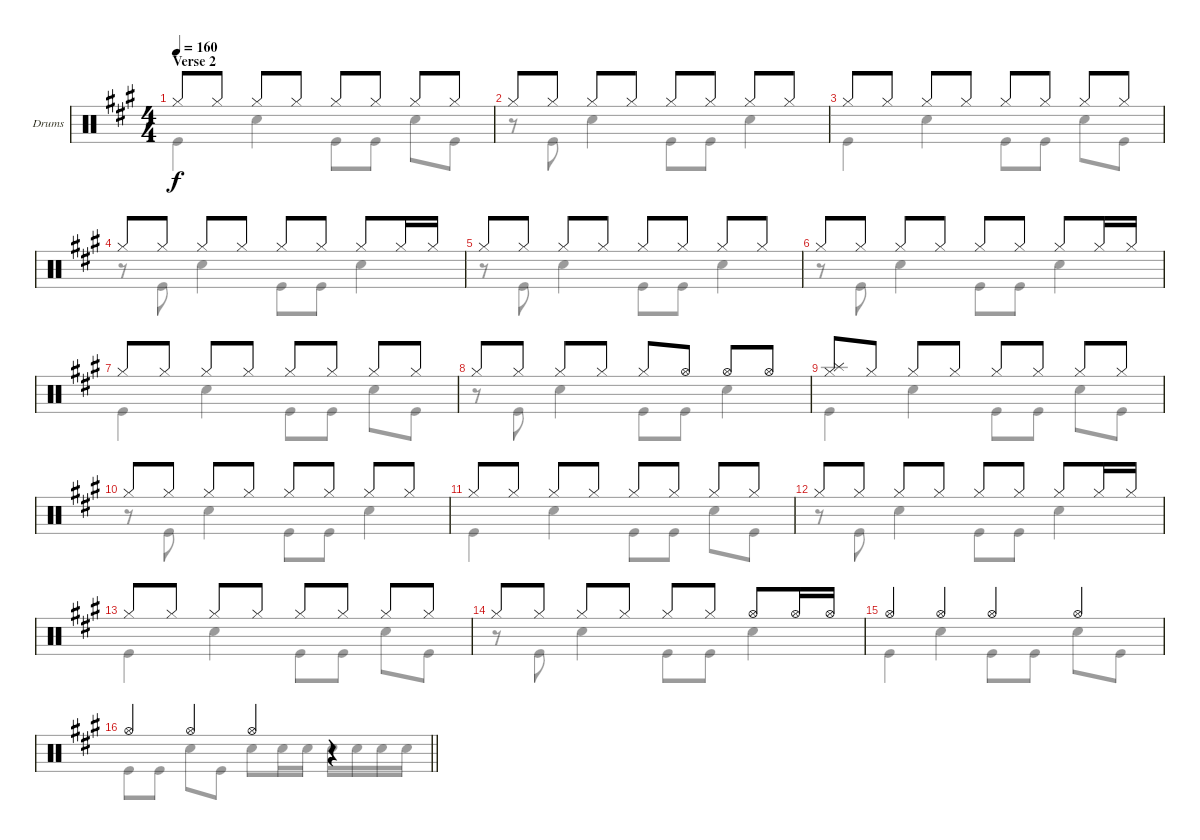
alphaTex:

\bracketExtendMode groupsimilarinstruments
\firstSystemTrackNameOrientation horizontal
\otherSystemsTrackNameOrientation horizontal
\track ("Drumkit" "Drums") {instrument percussion}
\staff {score}
\articulation defaults
\voice
\ts (4 4)
\section ("" "Verse 2")
\tempo 160
\clef neutral
\ks a "Hi-Hat (closed)".8{dy f} "Hi-Hat (closed)".8 "Hi-Hat (closed)".8 "Hi-Hat (closed)".8 "Hi-Hat (closed)".8 "Hi-Hat (closed)".8 "Hi-Hat (closed)".8 "Hi-Hat (closed)".8
|
"Hi-Hat (closed)".8 "Hi-Hat (closed)".8 "Hi-Hat (closed)".8 "Hi-Hat (closed)".8 "Hi-Hat (closed)".8 "Hi-Hat (closed)".8 "Hi-Hat (closed)".8 "Hi-Hat (closed)".8 |
"Hi-Hat (closed)".8 "Hi-Hat (closed)".8 "Hi-Hat (closed)".8 "Hi-Hat (closed)".8 "Hi-Hat (closed)".8 "Hi-Hat (closed)".8 "Hi-Hat (closed)".8 "Hi-Hat (closed)".8 |
"Hi-Hat (closed)".8 "Hi-Hat (closed)".8 "Hi-Hat (closed)".8 "Hi-Hat (closed)".8 "Hi-Hat (closed)".8 "Hi-Hat (closed)".8 "Hi-Hat (closed)".8 "Hi-Hat (closed)".16 "Hi-Hat (closed)".16 |
"Hi-Hat (closed)".8 "Hi-Hat (closed)".8 "Hi-Hat (closed)".8 "Hi-Hat (closed)".8 "Hi-Hat (closed)".8 "Hi-Hat (closed)".8 "Hi-Hat (closed)".8 "Hi-Hat (closed)".8 |
"Hi-Hat (closed)".8 "Hi-Hat (closed)".8 "Hi-Hat (closed)".8 "Hi-Hat (closed)".8 "Hi-Hat (closed)".8 "Hi-Hat (closed)".8 "Hi-Hat (closed)".8 "Hi-Hat (closed)".16 "Hi-Hat (closed)".16 |
"Hi-Hat (closed)".8 "Hi-Hat (closed)".8 "Hi-Hat (closed)".8 "Hi-Hat (closed)".8 "Hi-Hat (closed)".8 "Hi-Hat (closed)".8 "Hi-Hat (closed)".8 "Hi-Hat (closed)".8 |
"Hi-Hat (closed)".8 "Hi-Hat (closed)".8 "Hi-Hat (closed)".8 "Hi-Hat (closed)".8 "Hi-Hat (closed)".8 "Hi-Hat (open)".8 "Hi-Hat (open)".8 "Hi-Hat (open)".8 |
("Splash (hit)" "Hi-Hat (closed)").8 "Hi-Hat (closed)".8 "Hi-Hat (closed)".8 "Hi-Hat (closed)".8 "Hi-Hat (closed)".8 "Hi-Hat (closed)".8 "Hi-Hat (closed)".8 "Hi-Hat (closed)".8 |
"Hi-Hat (closed)".8 "Hi-Hat (closed)".8 "Hi-Hat (closed)".8 "Hi-Hat (closed)".8 "Hi-Hat (closed)".8 "Hi-Hat (closed)".8 "Hi-Hat (closed)".8 "Hi-Hat (closed)".8 |
"Hi-Hat (closed)".8 "Hi-Hat (closed)".8 "Hi-Hat (closed)".8 "Hi-Hat (closed)".8 "Hi-Hat (closed)".8 "Hi-Hat (closed)".8 "Hi-Hat (closed)".8 "Hi-Hat (closed)".8 |
"Hi-Hat (closed)".8 "Hi-Hat (closed)".8 "Hi-Hat (closed)".8 "Hi-Hat (closed)".8 "Hi-Hat (closed)".8 "Hi-Hat (closed)".8 "Hi-Hat (closed)".8 "Hi-Hat (closed)".16 "Hi-Hat (closed)".16 |
"Hi-Hat (closed)".8 "Hi-Hat (closed)".8 "Hi-Hat (closed)".8 "Hi-Hat (closed)".8 "Hi-Hat (closed)".8 "Hi-Hat (closed)".8 "Hi-Hat (closed)".8 "Hi-Hat (closed)".8 |
"Hi-Hat (closed)".8 "Hi-Hat (closed)".8 "Hi-Hat (closed)".8 "Hi-Hat (closed)".8 "Hi-Hat (closed)".8 "Hi-Hat (closed)".8 "Hi-Hat (open)".8 "Hi-Hat (open)".16 "Hi-Hat (open)".16 |
"Hi-Hat (open)".4 "Hi-Hat (open)".4 "Hi-Hat (open)".4 "Hi-Hat (open)".4 |
\barLineRight lightlight "Hi-Hat (open)".4 "Hi-Hat (open)".4 "Hi-Hat (open)".4
r.4
\voice
\clef neutral
\ottava regular
\simile none
\ks a "Kick (hit)".4{dy f} "Snare (hit) 2".4 "Kick (hit)".8 "Kick (hit)".8 "Snare (hit) 2".8 "Kick (hit)".8
|
r.8 "Kick (hit)".8 "Snare (hit) 2".4 "Kick (hit)".8 "Kick (hit)".8 "Snare (hit) 2".4 |
"Kick (hit)".4 "Snare (hit) 2".4 "Kick (hit)".8 "Kick (hit)".8 "Snare (hit) 2".8 "Kick (hit)".8 |
r.8 "Kick (hit)".8 "Snare (hit) 2".4 "Kick (hit)".8 "Kick (hit)".8 "Snare (hit) 2".4 |
r.8 "Kick (hit)".8 "Snare (hit) 2".4 "Kick (hit)".8 "Kick (hit)".8 "Snare (hit) 2".4 |
r.8 "Kick (hit)".8 "Snare (hit) 2".4 "Kick (hit)".8 "Kick (hit)".8 "Snare (hit) 2".4 |
"Kick (hit)".4 "Snare (hit) 2".4 "Kick (hit)".8 "Kick (hit)".8 "Snare (hit) 2".8 "Kick (hit)".8 |
r.8 "Kick (hit)".8 "Snare (hit) 2".4 "Kick (hit)".8 "Kick (hit)".8 "Snare (hit) 2".4 |
"Kick (hit)".4 "Snare (hit) 2".4 "Kick (hit)".8 "Kick (hit)".8 "Snare (hit) 2".8 "Kick (hit)".8 |
r.8 "Kick (hit)".8 "Snare (hit) 2".4 "Kick (hit)".8 "Kick (hit)".8 "Snare (hit) 2".4 |
"Kick (hit)".4 "Snare (hit) 2".4 "Kick (hit)".8 "Kick (hit)".8 "Snare (hit) 2".8 "Kick (hit)".8 |
r.8 "Kick (hit)".8 "Snare (hit) 2".4 "Kick (hit)".8 "Kick (hit)".8 "Snare (hit) 2".4 |
"Kick (hit)".4 "Snare (hit) 2".4 "Kick (hit)".8 "Kick (hit)".8 "Snare (hit) 2".8 "Kick (hit)".8 |
r.8 "Kick (hit)".8 "Snare (hit) 2".4 "Kick (hit)".8 "Kick (hit)".8 "Snare (hit) 2".4 |
"Kick (hit)".4 "Snare (hit) 2".4 "Kick (hit)".8 "Kick (hit)".8 "Snare (hit) 2".8 "Kick (hit)".8 |
\barLineRight lightlight "Kick (hit)".8 "Kick (hit)".8 "Snare (hit) 2".8 "Kick (hit)".8 "Snare (hit) 2".8 "Snare (hit) 2".16 "Snare (hit) 2".16 "Snare (hit) 2".16 "Snare (hit) 2".16 "Snare (hit) 2".16 "Snare (hit) 2".16
